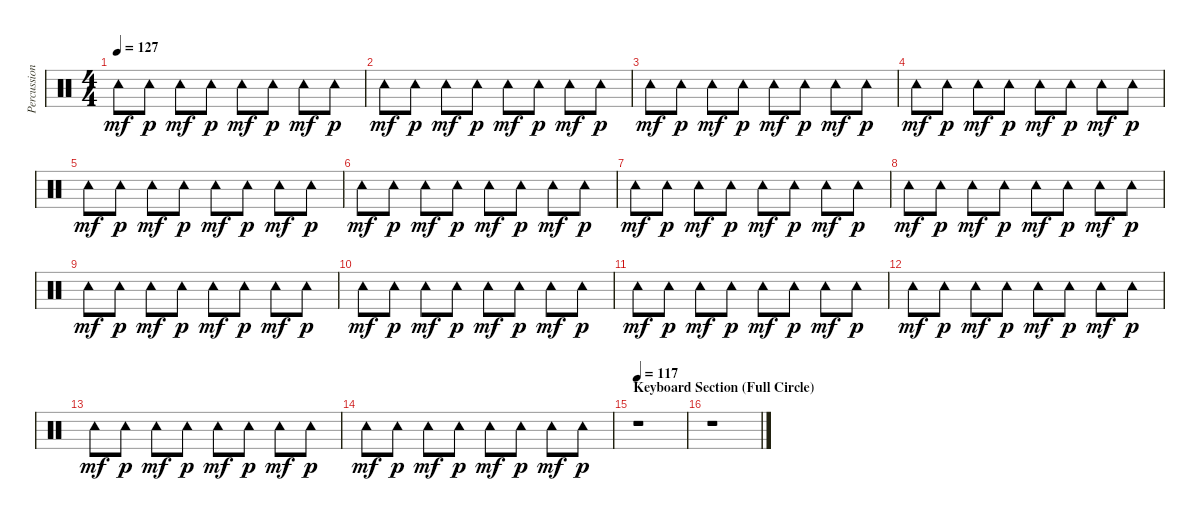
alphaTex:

\track ("Percussion Overdubs" "Percussion") {instrument percussion}
\staff {score}
\articulation defaults
\ts (4 4)
\tempo 127
\clef neutral
\ks c "Tambourine (hit)".8{dy mf} "Tambourine (hit)".8{dy p} "Tambourine (hit)".8{dy mf} "Tambourine (hit)".8{dy p} "Tambourine (hit)".8{dy mf} "Tambourine (hit)".8{dy p} "Tambourine (hit)".8{dy mf} "Tambourine (hit)".8{dy p}
|
"Tambourine (hit)".8{dy mf} "Tambourine (hit)".8{dy p} "Tambourine (hit)".8{dy mf} "Tambourine (hit)".8{dy p} "Tambourine (hit)".8{dy mf} "Tambourine (hit)".8{dy p} "Tambourine (hit)".8{dy mf} "Tambourine (hit)".8{dy p} |
"Tambourine (hit)".8{dy mf} "Tambourine (hit)".8{dy p} "Tambourine (hit)".8{dy mf} "Tambourine (hit)".8{dy p} "Tambourine (hit)".8{dy mf} "Tambourine (hit)".8{dy p} "Tambourine (hit)".8{dy mf} "Tambourine (hit)".8{dy p} |
"Tambourine (hit)".8{dy mf} "Tambourine (hit)".8{dy p} "Tambourine (hit)".8{dy mf} "Tambourine (hit)".8{dy p} "Tambourine (hit)".8{dy mf} "Tambourine (hit)".8{dy p} "Tambourine (hit)".8{dy mf} "Tambourine (hit)".8{dy p} |
"Tambourine (hit)".8{dy mf} "Tambourine (hit)".8{dy p} "Tambourine (hit)".8{dy mf} "Tambourine (hit)".8{dy p} "Tambourine (hit)".8{dy mf} "Tambourine (hit)".8{dy p} "Tambourine (hit)".8{dy mf} "Tambourine (hit)".8{dy p} |
"Tambourine (hit)".8{dy mf} "Tambourine (hit)".8{dy p} "Tambourine (hit)".8{dy mf} "Tambourine (hit)".8{dy p} "Tambourine (hit)".8{dy mf} "Tambourine (hit)".8{dy p} "Tambourine (hit)".8{dy mf} "Tambourine (hit)".8{dy p} |
"Tambourine (hit)".8{dy mf} "Tambourine (hit)".8{dy p} "Tambourine (hit)".8{dy mf} "Tambourine (hit)".8{dy p} "Tambourine (hit)".8{dy mf} "Tambourine (hit)".8{dy p} "Tambourine (hit)".8{dy mf} "Tambourine (hit)".8{dy p} |
"Tambourine (hit)".8{dy mf} "Tambourine (hit)".8{dy p} "Tambourine (hit)".8{dy mf} "Tambourine (hit)".8{dy p} "Tambourine (hit)".8{dy mf} "Tambourine (hit)".8{dy p} "Tambourine (hit)".8{dy mf} "Tambourine (hit)".8{dy p} |
"Tambourine (hit)".8{dy mf} "Tambourine (hit)".8{dy p} "Tambourine (hit)".8{dy mf} "Tambourine (hit)".8{dy p} "Tambourine (hit)".8{dy mf} "Tambourine (hit)".8{dy p} "Tambourine (hit)".8{dy mf} "Tambourine (hit)".8{dy p} |
"Tambourine (hit)".8{dy mf} "Tambourine (hit)".8{dy p} "Tambourine (hit)".8{dy mf} "Tambourine (hit)".8{dy p} "Tambourine (hit)".8{dy mf} "Tambourine (hit)".8{dy p} "Tambourine (hit)".8{dy mf} "Tambourine (hit)".8{dy p} |
"Tambourine (hit)".8{dy mf} "Tambourine (hit)".8{dy p} "Tambourine (hit)".8{dy mf} "Tambourine (hit)".8{dy p} "Tambourine (hit)".8{dy mf} "Tambourine (hit)".8{dy p} "Tambourine (hit)".8{dy mf} "Tambourine (hit)".8{dy p} |
"Tambourine (hit)".8{dy mf} "Tambourine (hit)".8{dy p} "Tambourine (hit)".8{dy mf} "Tambourine (hit)".8{dy p} "Tambourine (hit)".8{dy mf} "Tambourine (hit)".8{dy p} "Tambourine (hit)".8{dy mf} "Tambourine (hit)".8{dy p} |
"Tambourine (hit)".8{dy mf} "Tambourine (hit)".8{dy p} "Tambourine (hit)".8{dy mf} "Tambourine (hit)".8{dy p} "Tambourine (hit)".8{dy mf} "Tambourine (hit)".8{dy p} "Tambourine (hit)".8{dy mf} "Tambourine (hit)".8{dy p} |
"Tambourine (hit)".8{dy mf} "Tambourine (hit)".8{dy p} "Tambourine (hit)".8{dy mf} "Tambourine (hit)".8{dy p} "Tambourine (hit)".8{dy mf} "Tambourine (hit)".8{dy p} "Tambourine (hit)".8{dy mf} "Tambourine (hit)".8{dy p} |
\section ("" "Keyboard Section (Full Circle)")
\tempo 117
r.1 |
r.1
